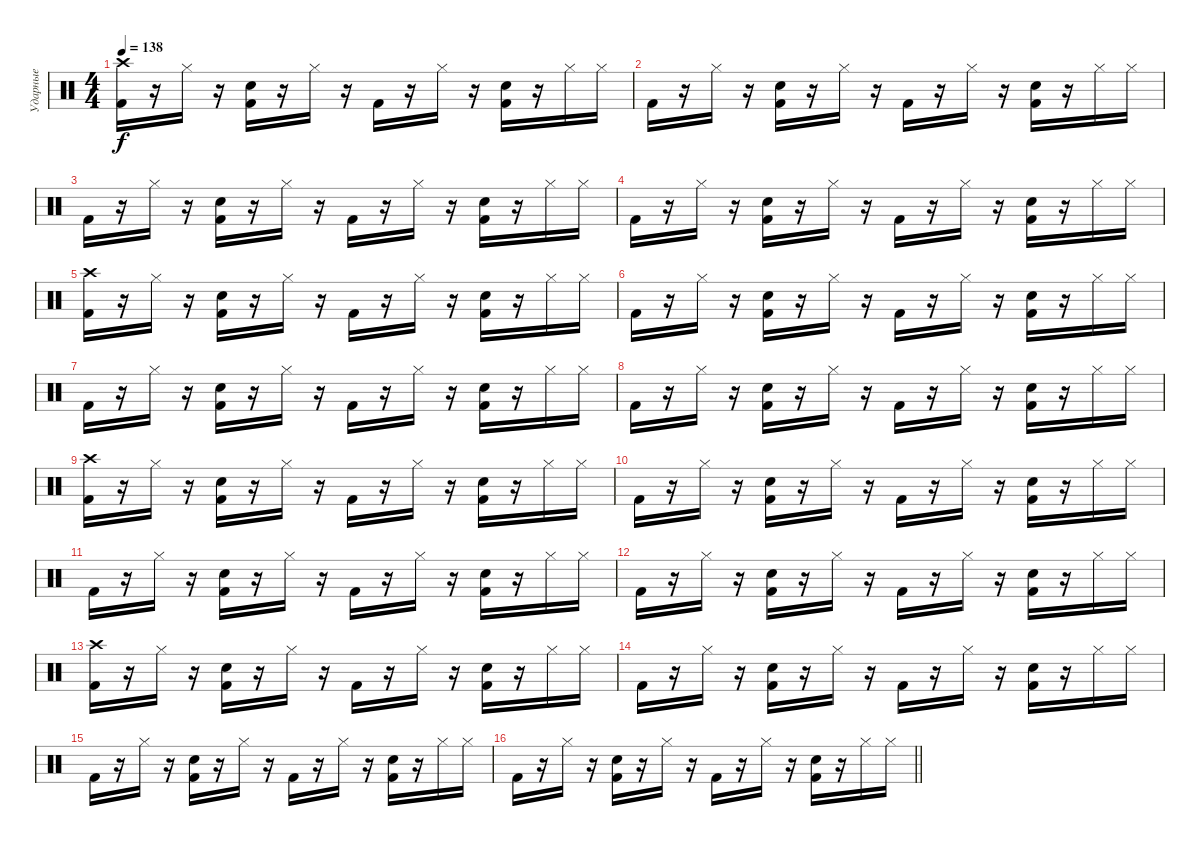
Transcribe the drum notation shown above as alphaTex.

\track ("Ударные" "Ударные") {instrument percussion}
\staff {score}
\articulation defaults
\ts (4 4)
\tempo 138
\clef neutral
\ks c
("Crash high (hit)" "Kick (hit) 2").16{dy f} r.16 "Hi-Hat (closed)".16 r.16 ("Electric Snare (hit)" "Kick (hit) 2").16 r.16 "Hi-Hat (closed)".16 r.16 "Kick (hit) 2".16 r.16 "Hi-Hat (closed)".16 r.16 ("Electric Snare (hit)" "Kick (hit) 2").16 r.16 "Hi-Hat (closed)".16 "Hi-Hat (closed)".16 |
"Kick (hit) 2".16 r.16 "Hi-Hat (closed)".16 r.16 ("Electric Snare (hit)" "Kick (hit) 2").16 r.16 "Hi-Hat (closed)".16 r.16 "Kick (hit) 2".16 r.16 "Hi-Hat (closed)".16 r.16 ("Electric Snare (hit)" "Kick (hit) 2").16 r.16 "Hi-Hat (closed)".16 "Hi-Hat (closed)".16 |
"Kick (hit) 2".16 r.16 "Hi-Hat (closed)".16 r.16 ("Electric Snare (hit)" "Kick (hit) 2").16 r.16 "Hi-Hat (closed)".16 r.16 "Kick (hit) 2".16 r.16 "Hi-Hat (closed)".16 r.16 ("Electric Snare (hit)" "Kick (hit) 2").16 r.16 "Hi-Hat (closed)".16 "Hi-Hat (closed)".16 |
"Kick (hit) 2".16 r.16 "Hi-Hat (closed)".16 r.16 ("Electric Snare (hit)" "Kick (hit) 2").16 r.16 "Hi-Hat (closed)".16 r.16 "Kick (hit) 2".16 r.16 "Hi-Hat (closed)".16 r.16 ("Electric Snare (hit)" "Kick (hit) 2").16 r.16 "Hi-Hat (closed)".16 "Hi-Hat (closed)".16 |
("Crash high (hit)" "Kick (hit) 2").16 r.16 "Hi-Hat (closed)".16 r.16 ("Electric Snare (hit)" "Kick (hit) 2").16 r.16 "Hi-Hat (closed)".16 r.16 "Kick (hit) 2".16 r.16 "Hi-Hat (closed)".16 r.16 ("Electric Snare (hit)" "Kick (hit) 2").16 r.16 "Hi-Hat (closed)".16 "Hi-Hat (closed)".16 |
"Kick (hit) 2".16 r.16 "Hi-Hat (closed)".16 r.16 ("Electric Snare (hit)" "Kick (hit) 2").16 r.16 "Hi-Hat (closed)".16 r.16 "Kick (hit) 2".16 r.16 "Hi-Hat (closed)".16 r.16 ("Electric Snare (hit)" "Kick (hit) 2").16 r.16 "Hi-Hat (closed)".16 "Hi-Hat (closed)".16 |
"Kick (hit) 2".16 r.16 "Hi-Hat (closed)".16 r.16 ("Electric Snare (hit)" "Kick (hit) 2").16 r.16 "Hi-Hat (closed)".16 r.16 "Kick (hit) 2".16 r.16 "Hi-Hat (closed)".16 r.16 ("Electric Snare (hit)" "Kick (hit) 2").16 r.16 "Hi-Hat (closed)".16 "Hi-Hat (closed)".16 |
"Kick (hit) 2".16 r.16 "Hi-Hat (closed)".16 r.16 ("Electric Snare (hit)" "Kick (hit) 2").16 r.16 "Hi-Hat (closed)".16 r.16 "Kick (hit) 2".16 r.16 "Hi-Hat (closed)".16 r.16 ("Electric Snare (hit)" "Kick (hit) 2").16 r.16 "Hi-Hat (closed)".16 "Hi-Hat (closed)".16 |
("Crash high (hit)" "Kick (hit) 2").16 r.16 "Hi-Hat (closed)".16 r.16 ("Electric Snare (hit)" "Kick (hit) 2").16 r.16 "Hi-Hat (closed)".16 r.16 "Kick (hit) 2".16 r.16 "Hi-Hat (closed)".16 r.16 ("Electric Snare (hit)" "Kick (hit) 2").16 r.16 "Hi-Hat (closed)".16 "Hi-Hat (closed)".16 |
"Kick (hit) 2".16 r.16 "Hi-Hat (closed)".16 r.16 ("Electric Snare (hit)" "Kick (hit) 2").16 r.16 "Hi-Hat (closed)".16 r.16 "Kick (hit) 2".16 r.16 "Hi-Hat (closed)".16 r.16 ("Electric Snare (hit)" "Kick (hit) 2").16 r.16 "Hi-Hat (closed)".16 "Hi-Hat (closed)".16 |
"Kick (hit) 2".16 r.16 "Hi-Hat (closed)".16 r.16 ("Electric Snare (hit)" "Kick (hit) 2").16 r.16 "Hi-Hat (closed)".16 r.16 "Kick (hit) 2".16 r.16 "Hi-Hat (closed)".16 r.16 ("Electric Snare (hit)" "Kick (hit) 2").16 r.16 "Hi-Hat (closed)".16 "Hi-Hat (closed)".16 |
"Kick (hit) 2".16 r.16 "Hi-Hat (closed)".16 r.16 ("Electric Snare (hit)" "Kick (hit) 2").16 r.16 "Hi-Hat (closed)".16 r.16 "Kick (hit) 2".16 r.16 "Hi-Hat (closed)".16 r.16 ("Electric Snare (hit)" "Kick (hit) 2").16 r.16 "Hi-Hat (closed)".16 "Hi-Hat (closed)".16 |
("Crash high (hit)" "Kick (hit) 2").16 r.16 "Hi-Hat (closed)".16 r.16 ("Electric Snare (hit)" "Kick (hit) 2").16 r.16 "Hi-Hat (closed)".16 r.16 "Kick (hit) 2".16 r.16 "Hi-Hat (closed)".16 r.16 ("Electric Snare (hit)" "Kick (hit) 2").16 r.16 "Hi-Hat (closed)".16 "Hi-Hat (closed)".16 |
"Kick (hit) 2".16 r.16 "Hi-Hat (closed)".16 r.16 ("Electric Snare (hit)" "Kick (hit) 2").16 r.16 "Hi-Hat (closed)".16 r.16 "Kick (hit) 2".16 r.16 "Hi-Hat (closed)".16 r.16 ("Electric Snare (hit)" "Kick (hit) 2").16 r.16 "Hi-Hat (closed)".16 "Hi-Hat (closed)".16 |
"Kick (hit) 2".16 r.16 "Hi-Hat (closed)".16 r.16 ("Electric Snare (hit)" "Kick (hit) 2").16 r.16 "Hi-Hat (closed)".16 r.16 "Kick (hit) 2".16 r.16 "Hi-Hat (closed)".16 r.16 ("Electric Snare (hit)" "Kick (hit) 2").16 r.16 "Hi-Hat (closed)".16 "Hi-Hat (closed)".16 |
\barLineRight lightlight "Kick (hit) 2".16
r.16 "Hi-Hat (closed)".16 r.16 ("Electric Snare (hit)" "Kick (hit) 2").16 r.16 "Hi-Hat (closed)".16 r.16 "Kick (hit) 2".16 r.16 "Hi-Hat (closed)".16 r.16 ("Electric Snare (hit)" "Kick (hit) 2").16 r.16 "Hi-Hat (closed)".16 "Hi-Hat (closed)".16
